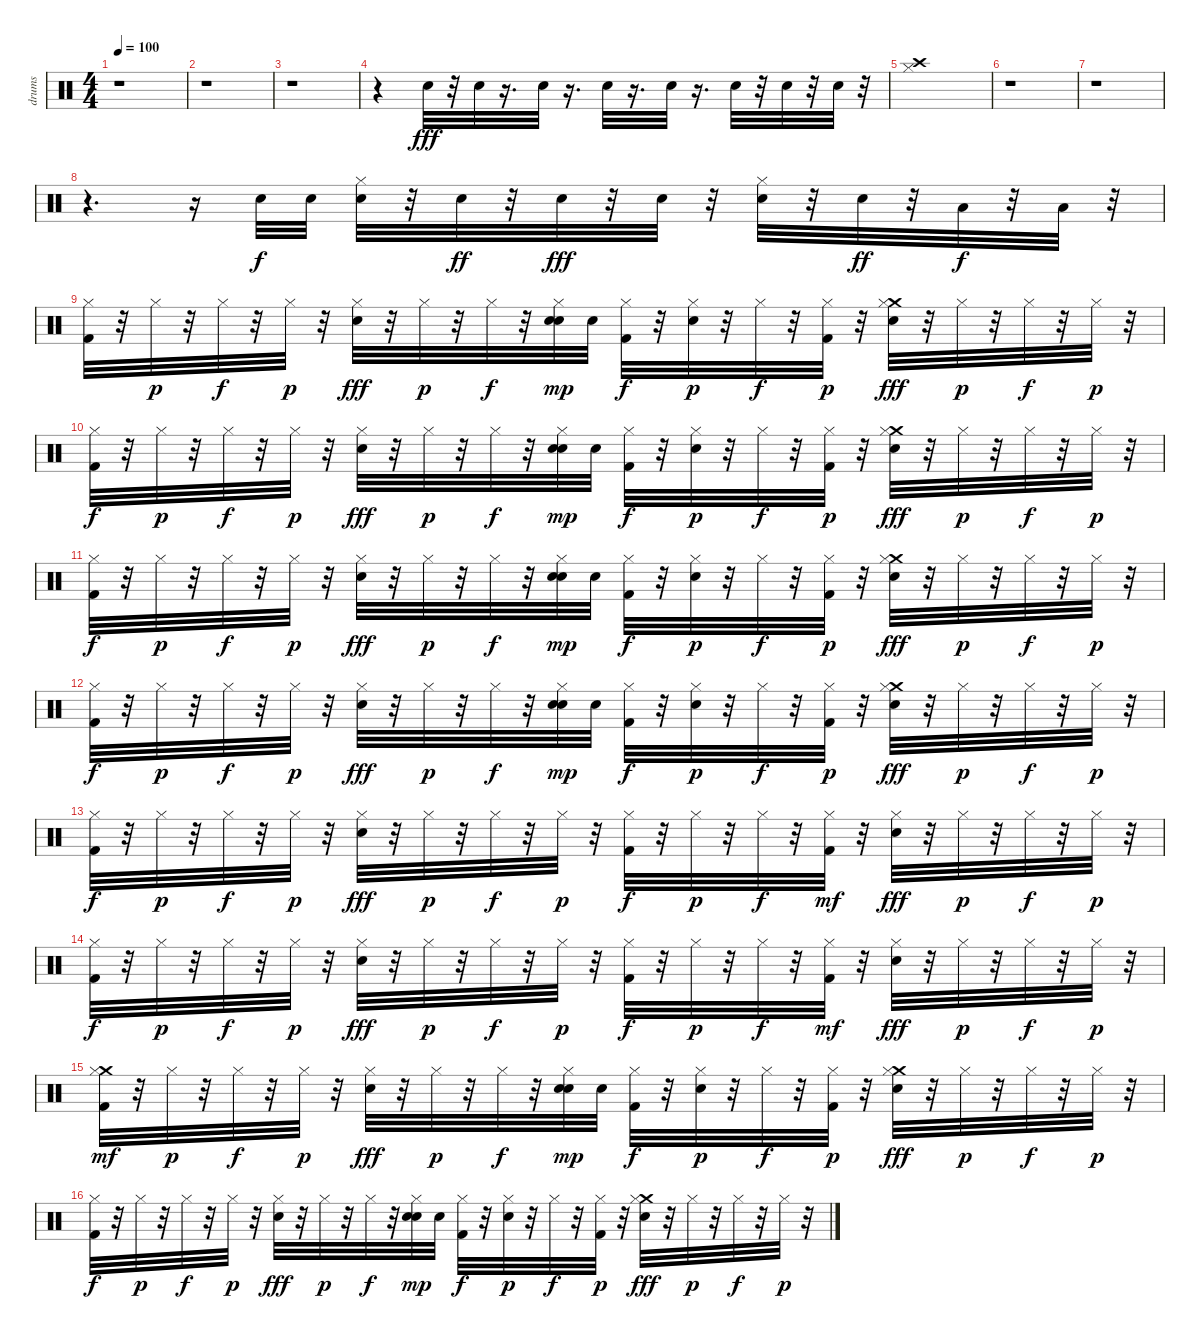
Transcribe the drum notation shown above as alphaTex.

\track ("drums" "drums") {instrument percussion}
\staff {score}
\articulation defaults
\ts (4 4)
\tempo 100
\clef neutral
\ks c
r.1{dy fff} |
r.1 |
r.1 |
r.4 "Electric Snare (hit)".32 r.32 "Electric Snare (hit)".32 r.16{d} "Electric Snare (hit)".32 r.16{d} "Electric Snare (hit)".32 r.16{d} "Electric Snare (hit)".32 r.16{d} "Electric Snare (hit)".32 r.32 "Electric Snare (hit)".32 r.32 "Electric Snare (hit)".32 r.32 |
("Hi-Hat (closed)" "Crash high (hit)").1 |
r.1 |
r.1 |
r.4{d} r.16 "Snare (hit) 2".32{dy f} "Snare (hit) 2".32 ("Hi-Hat (closed)" "Electric Snare (hit)").32 r.32 "Electric Snare (hit)".32{dy ff} r.32 "Electric Snare (hit)".32{dy fff} r.32 "Electric Snare (hit)".32 r.32 ("Hi-Hat (closed)" "Snare (hit) 2").32 r.32 "Snare (hit) 2".32{dy ff} r.32 "Low Tom (hit)".32{dy f} r.32 "Low Tom (hit)".32 r.32 |
("Hi-Hat (closed)" "Kick (hit) 2").32 r.32 "Hi-Hat (closed)".32{dy p} r.32 "Hi-Hat (closed)".32{dy f} r.32 "Hi-Hat (closed)".32{dy p} r.32 ("Hi-Hat (closed)" "Electric Snare (hit)").32{dy fff} r.32 "Hi-Hat (closed)".32{dy p} r.32 "Hi-Hat (closed)".32{dy f} r.32 ("Hi-Hat (closed)" "Electric Snare (hit)" "Electric Snare (hit)").32{dy mp} "Electric Snare (hit)".32 ("Hi-Hat (closed)" "Kick (hit) 2").32{dy f} r.32 ("Hi-Hat (closed)" "Electric Snare (hit)").32{dy p} r.32 "Hi-Hat (closed)".32{dy f} r.32 ("Hi-Hat (closed)" "Kick (hit) 2").32{dy p} r.32 ("Crash medium (hit)" "Hi-Hat (closed)" "Electric Snare (hit)").32{dy fff} r.32 "Hi-Hat (closed)".32{dy p} r.32 "Hi-Hat (closed)".32{dy f} r.32 "Hi-Hat (closed)".32{dy p} r.32 |
("Hi-Hat (closed)" "Kick (hit) 2").32{dy f} r.32 "Hi-Hat (closed)".32{dy p} r.32 "Hi-Hat (closed)".32{dy f} r.32 "Hi-Hat (closed)".32{dy p} r.32 ("Hi-Hat (closed)" "Electric Snare (hit)").32{dy fff} r.32 "Hi-Hat (closed)".32{dy p} r.32 "Hi-Hat (closed)".32{dy f} r.32 ("Hi-Hat (closed)" "Electric Snare (hit)" "Electric Snare (hit)").32{dy mp} "Electric Snare (hit)".32 ("Hi-Hat (closed)" "Kick (hit) 2").32{dy f} r.32 ("Hi-Hat (closed)" "Electric Snare (hit)").32{dy p} r.32 "Hi-Hat (closed)".32{dy f} r.32 ("Hi-Hat (closed)" "Kick (hit) 2").32{dy p} r.32 ("Crash medium (hit)" "Hi-Hat (closed)" "Electric Snare (hit)").32{dy fff} r.32 "Hi-Hat (closed)".32{dy p} r.32 "Hi-Hat (closed)".32{dy f} r.32 "Hi-Hat (closed)".32{dy p} r.32 |
("Hi-Hat (closed)" "Kick (hit) 2").32{dy f} r.32 "Hi-Hat (closed)".32{dy p} r.32 "Hi-Hat (closed)".32{dy f} r.32 "Hi-Hat (closed)".32{dy p} r.32 ("Hi-Hat (closed)" "Electric Snare (hit)").32{dy fff} r.32 "Hi-Hat (closed)".32{dy p} r.32 "Hi-Hat (closed)".32{dy f} r.32 ("Hi-Hat (closed)" "Electric Snare (hit)" "Electric Snare (hit)").32{dy mp} "Electric Snare (hit)".32 ("Hi-Hat (closed)" "Kick (hit) 2").32{dy f} r.32 ("Hi-Hat (closed)" "Electric Snare (hit)").32{dy p} r.32 "Hi-Hat (closed)".32{dy f} r.32 ("Hi-Hat (closed)" "Kick (hit) 2").32{dy p} r.32 ("Crash medium (hit)" "Hi-Hat (closed)" "Electric Snare (hit)").32{dy fff} r.32 "Hi-Hat (closed)".32{dy p} r.32 "Hi-Hat (closed)".32{dy f} r.32 "Hi-Hat (closed)".32{dy p} r.32 |
("Hi-Hat (closed)" "Kick (hit) 2").32{dy f} r.32 "Hi-Hat (closed)".32{dy p} r.32 "Hi-Hat (closed)".32{dy f} r.32 "Hi-Hat (closed)".32{dy p} r.32 ("Hi-Hat (closed)" "Electric Snare (hit)").32{dy fff} r.32 "Hi-Hat (closed)".32{dy p} r.32 "Hi-Hat (closed)".32{dy f} r.32 ("Hi-Hat (closed)" "Electric Snare (hit)" "Electric Snare (hit)").32{dy mp} "Electric Snare (hit)".32 ("Hi-Hat (closed)" "Kick (hit) 2").32{dy f} r.32 ("Hi-Hat (closed)" "Electric Snare (hit)").32{dy p} r.32 "Hi-Hat (closed)".32{dy f} r.32 ("Hi-Hat (closed)" "Kick (hit) 2").32{dy p} r.32 ("Crash medium (hit)" "Hi-Hat (closed)" "Electric Snare (hit)").32{dy fff} r.32 "Hi-Hat (closed)".32{dy p} r.32 "Hi-Hat (closed)".32{dy f} r.32 "Hi-Hat (closed)".32{dy p} r.32 |
("Hi-Hat (closed)" "Kick (hit) 2").32{dy f} r.32 "Hi-Hat (closed)".32{dy p} r.32 "Hi-Hat (closed)".32{dy f} r.32 "Hi-Hat (closed)".32{dy p} r.32 ("Hi-Hat (closed)" "Electric Snare (hit)").32{dy fff} r.32 "Hi-Hat (closed)".32{dy p} r.32 "Hi-Hat (closed)".32{dy f} r.32 "Hi-Hat (closed)".32{dy p} r.32 ("Hi-Hat (closed)" "Kick (hit) 2").32{dy f} r.32 "Hi-Hat (closed)".32{dy p} r.32 "Hi-Hat (closed)".32{dy f} r.32 ("Hi-Hat (closed)" "Kick (hit) 2").32{dy mf} r.32 ("Hi-Hat (closed)" "Electric Snare (hit)").32{dy fff} r.32 "Hi-Hat (closed)".32{dy p} r.32 "Hi-Hat (closed)".32{dy f} r.32 "Hi-Hat (closed)".32{dy p} r.32 |
("Hi-Hat (closed)" "Kick (hit) 2").32{dy f} r.32 "Hi-Hat (closed)".32{dy p} r.32 "Hi-Hat (closed)".32{dy f} r.32 "Hi-Hat (closed)".32{dy p} r.32 ("Hi-Hat (closed)" "Electric Snare (hit)").32{dy fff} r.32 "Hi-Hat (closed)".32{dy p} r.32 "Hi-Hat (closed)".32{dy f} r.32 "Hi-Hat (closed)".32{dy p} r.32 ("Hi-Hat (closed)" "Kick (hit) 2").32{dy f} r.32 "Hi-Hat (closed)".32{dy p} r.32 "Hi-Hat (closed)".32{dy f} r.32 ("Hi-Hat (closed)" "Kick (hit) 2").32{dy mf} r.32 ("Hi-Hat (closed)" "Electric Snare (hit)").32{dy fff} r.32 "Hi-Hat (closed)".32{dy p} r.32 "Hi-Hat (closed)".32{dy f} r.32 "Hi-Hat (closed)".32{dy p} r.32 |
("Crash medium (hit)" "Hi-Hat (closed)" "Kick (hit) 2").32{dy mf} r.32 "Hi-Hat (closed)".32{dy p} r.32 "Hi-Hat (closed)".32{dy f} r.32 "Hi-Hat (closed)".32{dy p} r.32 ("Hi-Hat (closed)" "Electric Snare (hit)").32{dy fff} r.32 "Hi-Hat (closed)".32{dy p} r.32 "Hi-Hat (closed)".32{dy f} r.32 ("Hi-Hat (closed)" "Electric Snare (hit)" "Electric Snare (hit)").32{dy mp} "Electric Snare (hit)".32 ("Hi-Hat (closed)" "Kick (hit) 2").32{dy f} r.32 ("Hi-Hat (closed)" "Electric Snare (hit)").32{dy p} r.32 "Hi-Hat (closed)".32{dy f} r.32 ("Hi-Hat (closed)" "Kick (hit) 2").32{dy p} r.32 ("Crash medium (hit)" "Hi-Hat (closed)" "Electric Snare (hit)").32{dy fff} r.32 "Hi-Hat (closed)".32{dy p} r.32 "Hi-Hat (closed)".32{dy f} r.32 "Hi-Hat (closed)".32{dy p} r.32 |
("Hi-Hat (closed)" "Kick (hit) 2").32{dy f} r.32 "Hi-Hat (closed)".32{dy p} r.32 "Hi-Hat (closed)".32{dy f} r.32 "Hi-Hat (closed)".32{dy p} r.32 ("Hi-Hat (closed)" "Electric Snare (hit)").32{dy fff} r.32 "Hi-Hat (closed)".32{dy p} r.32 "Hi-Hat (closed)".32{dy f} r.32 ("Hi-Hat (closed)" "Electric Snare (hit)" "Electric Snare (hit)").32{dy mp} "Electric Snare (hit)".32 ("Hi-Hat (closed)" "Kick (hit) 2").32{dy f} r.32 ("Hi-Hat (closed)" "Electric Snare (hit)").32{dy p} r.32 "Hi-Hat (closed)".32{dy f} r.32 ("Hi-Hat (closed)" "Kick (hit) 2").32{dy p} r.32 ("Crash medium (hit)" "Hi-Hat (closed)" "Electric Snare (hit)").32{dy fff} r.32 "Hi-Hat (closed)".32{dy p} r.32 "Hi-Hat (closed)".32{dy f} r.32 "Hi-Hat (closed)".32{dy p} r.32
